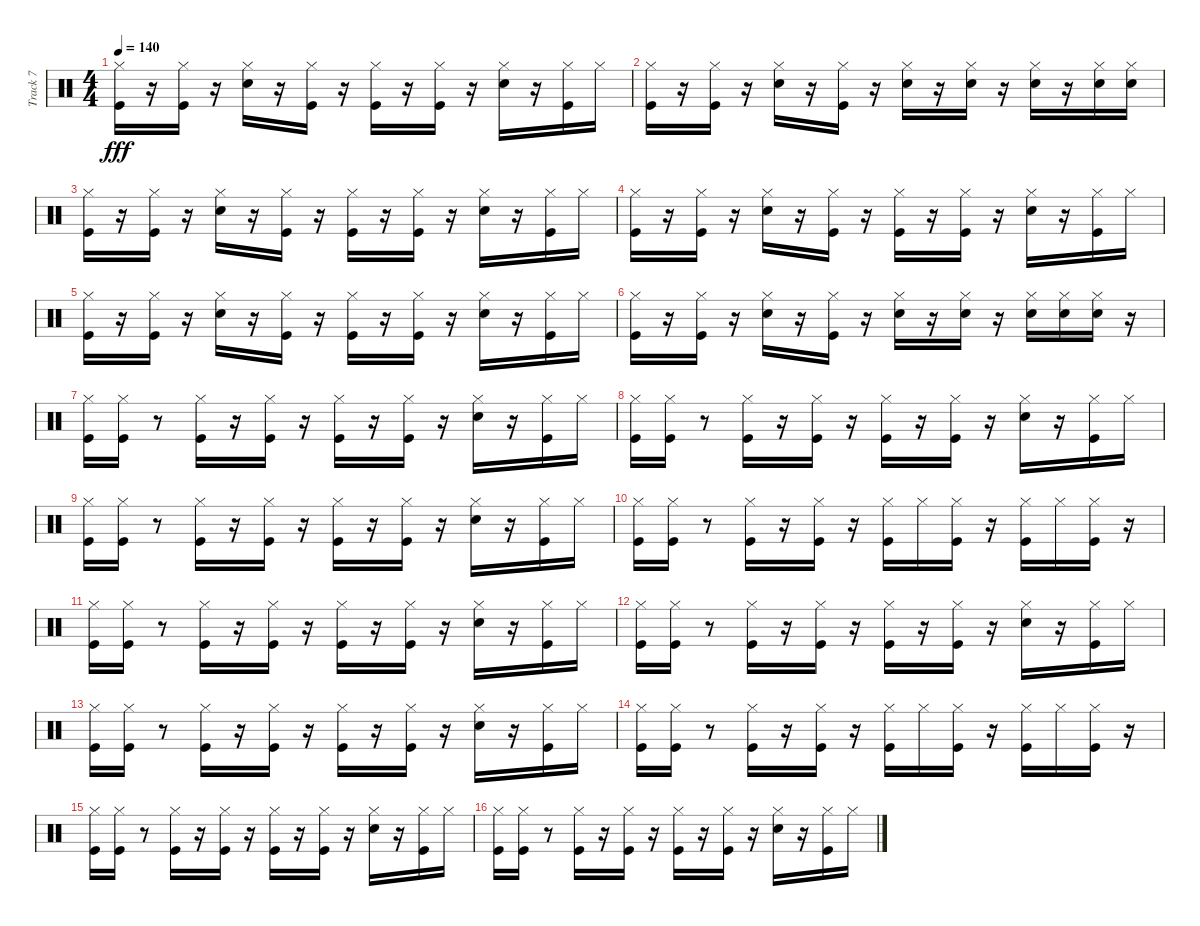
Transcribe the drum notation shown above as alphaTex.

\track ("Track 7" "Track 7") {instrument percussion}
\staff {score}
\articulation defaults
\ts (4 4)
\tempo 140
\clef neutral
\ks c
("Kick (hit)" "Hi-Hat (closed)").16{dy fff} r.16 ("Kick (hit)" "Hi-Hat (closed)").16 r.16 ("Snare (hit) 2" "Hi-Hat (closed)").16 r.16 ("Kick (hit)" "Hi-Hat (closed)").16 r.16 ("Kick (hit)" "Hi-Hat (closed)").16 r.16 ("Kick (hit)" "Hi-Hat (closed)").16 r.16 ("Snare (hit) 2" "Hi-Hat (closed)").16 r.16 ("Kick (hit)" "Hi-Hat (closed)").16 "Hi-Hat (closed)".16 |
("Kick (hit)" "Hi-Hat (closed)").16 r.16 ("Kick (hit)" "Hi-Hat (closed)").16 r.16 ("Snare (hit) 2" "Hi-Hat (closed)").16 r.16 ("Kick (hit)" "Hi-Hat (closed)").16 r.16 ("Snare (hit) 2" "Hi-Hat (closed)").16 r.16 ("Snare (hit) 2" "Hi-Hat (closed)").16 r.16 ("Snare (hit) 2" "Hi-Hat (closed)").16 r.16 ("Snare (hit) 2" "Hi-Hat (closed)").16 ("Snare (hit) 2" "Hi-Hat (closed)").16 |
("Kick (hit)" "Hi-Hat (closed)").16 r.16 ("Kick (hit)" "Hi-Hat (closed)").16 r.16 ("Snare (hit) 2" "Hi-Hat (closed)").16 r.16 ("Kick (hit)" "Hi-Hat (closed)").16 r.16 ("Kick (hit)" "Hi-Hat (closed)").16 r.16 ("Kick (hit)" "Hi-Hat (closed)").16 r.16 ("Snare (hit) 2" "Hi-Hat (closed)").16 r.16 ("Kick (hit)" "Hi-Hat (closed)").16 "Hi-Hat (closed)".16 |
("Kick (hit)" "Hi-Hat (closed)").16 r.16 ("Kick (hit)" "Hi-Hat (closed)").16 r.16 ("Snare (hit) 2" "Hi-Hat (closed)").16 r.16 ("Kick (hit)" "Hi-Hat (closed)").16 r.16 ("Kick (hit)" "Hi-Hat (closed)").16 r.16 ("Kick (hit)" "Hi-Hat (closed)").16 r.16 ("Snare (hit) 2" "Hi-Hat (closed)").16 r.16 ("Kick (hit)" "Hi-Hat (closed)").16 "Hi-Hat (closed)".16 |
("Kick (hit)" "Hi-Hat (closed)").16 r.16 ("Kick (hit)" "Hi-Hat (closed)").16 r.16 ("Snare (hit) 2" "Hi-Hat (closed)").16 r.16 ("Kick (hit)" "Hi-Hat (closed)").16 r.16 ("Kick (hit)" "Hi-Hat (closed)").16 r.16 ("Kick (hit)" "Hi-Hat (closed)").16 r.16 ("Snare (hit) 2" "Hi-Hat (closed)").16 r.16 ("Kick (hit)" "Hi-Hat (closed)").16 "Hi-Hat (closed)".16 |
("Kick (hit)" "Hi-Hat (closed)").16 r.16 ("Kick (hit)" "Hi-Hat (closed)").16 r.16 ("Snare (hit) 2" "Hi-Hat (closed)").16 r.16 ("Kick (hit)" "Hi-Hat (closed)").16 r.16 ("Snare (hit) 2" "Hi-Hat (closed)").16 r.16 ("Snare (hit) 2" "Hi-Hat (closed)").16 r.16 ("Snare (hit) 2" "Hi-Hat (closed)").16 ("Snare (hit) 2" "Hi-Hat (closed)").16 ("Snare (hit) 2" "Hi-Hat (closed)").16 r.16 |
("Kick (hit)" "Hi-Hat (closed)").16 ("Kick (hit)" "Hi-Hat (closed)").16 r.8 ("Kick (hit)" "Hi-Hat (closed)").16 r.16 ("Kick (hit)" "Hi-Hat (closed)").16 r.16 ("Kick (hit)" "Hi-Hat (closed)").16 r.16 ("Kick (hit)" "Hi-Hat (closed)").16 r.16 ("Snare (hit) 2" "Hi-Hat (closed)").16 r.16 ("Kick (hit)" "Hi-Hat (closed)").16 "Hi-Hat (closed)".16 |
("Kick (hit)" "Hi-Hat (closed)").16 ("Kick (hit)" "Hi-Hat (closed)").16 r.8 ("Kick (hit)" "Hi-Hat (closed)").16 r.16 ("Kick (hit)" "Hi-Hat (closed)").16 r.16 ("Kick (hit)" "Hi-Hat (closed)").16 r.16 ("Kick (hit)" "Hi-Hat (closed)").16 r.16 ("Snare (hit) 2" "Hi-Hat (closed)").16 r.16 ("Kick (hit)" "Hi-Hat (closed)").16 "Hi-Hat (closed)".16 |
("Kick (hit)" "Hi-Hat (closed)").16 ("Kick (hit)" "Hi-Hat (closed)").16 r.8 ("Kick (hit)" "Hi-Hat (closed)").16 r.16 ("Kick (hit)" "Hi-Hat (closed)").16 r.16 ("Kick (hit)" "Hi-Hat (closed)").16 r.16 ("Kick (hit)" "Hi-Hat (closed)").16 r.16 ("Snare (hit) 2" "Hi-Hat (closed)").16 r.16 ("Kick (hit)" "Hi-Hat (closed)").16 "Hi-Hat (closed)".16 |
("Kick (hit)" "Hi-Hat (closed)").16 ("Kick (hit)" "Hi-Hat (closed)").16 r.8 ("Kick (hit)" "Hi-Hat (closed)").16 r.16 ("Kick (hit)" "Hi-Hat (closed)").16 r.16 ("Kick (hit)" "Hi-Hat (closed)").16 "Hi-Hat (closed)".16 ("Kick (hit)" "Hi-Hat (closed)").16 r.16 ("Kick (hit)" "Hi-Hat (closed)").16 "Hi-Hat (closed)".16 ("Kick (hit)" "Hi-Hat (closed)").16 r.16 |
("Kick (hit)" "Hi-Hat (closed)").16 ("Kick (hit)" "Hi-Hat (closed)").16 r.8 ("Kick (hit)" "Hi-Hat (closed)").16 r.16 ("Kick (hit)" "Hi-Hat (closed)").16 r.16 ("Kick (hit)" "Hi-Hat (closed)").16 r.16 ("Kick (hit)" "Hi-Hat (closed)").16 r.16 ("Snare (hit) 2" "Hi-Hat (closed)").16 r.16 ("Kick (hit)" "Hi-Hat (closed)").16 "Hi-Hat (closed)".16 |
("Kick (hit)" "Hi-Hat (closed)").16 ("Kick (hit)" "Hi-Hat (closed)").16 r.8 ("Kick (hit)" "Hi-Hat (closed)").16 r.16 ("Kick (hit)" "Hi-Hat (closed)").16 r.16 ("Kick (hit)" "Hi-Hat (closed)").16 r.16 ("Kick (hit)" "Hi-Hat (closed)").16 r.16 ("Snare (hit) 2" "Hi-Hat (closed)").16 r.16 ("Kick (hit)" "Hi-Hat (closed)").16 "Hi-Hat (closed)".16 |
("Kick (hit)" "Hi-Hat (closed)").16 ("Kick (hit)" "Hi-Hat (closed)").16 r.8 ("Kick (hit)" "Hi-Hat (closed)").16 r.16 ("Kick (hit)" "Hi-Hat (closed)").16 r.16 ("Kick (hit)" "Hi-Hat (closed)").16 r.16 ("Kick (hit)" "Hi-Hat (closed)").16 r.16 ("Snare (hit) 2" "Hi-Hat (closed)").16 r.16 ("Kick (hit)" "Hi-Hat (closed)").16 "Hi-Hat (closed)".16 |
("Kick (hit)" "Hi-Hat (closed)").16 ("Kick (hit)" "Hi-Hat (closed)").16 r.8 ("Kick (hit)" "Hi-Hat (closed)").16 r.16 ("Kick (hit)" "Hi-Hat (closed)").16 r.16 ("Kick (hit)" "Hi-Hat (closed)").16 "Hi-Hat (closed)".16 ("Kick (hit)" "Hi-Hat (closed)").16 r.16 ("Kick (hit)" "Hi-Hat (closed)").16 "Hi-Hat (closed)".16 ("Kick (hit)" "Hi-Hat (closed)").16 r.16 |
("Kick (hit)" "Hi-Hat (closed)").16 ("Kick (hit)" "Hi-Hat (closed)").16 r.8 ("Kick (hit)" "Hi-Hat (closed)").16 r.16 ("Kick (hit)" "Hi-Hat (closed)").16 r.16 ("Kick (hit)" "Hi-Hat (closed)").16 r.16 ("Kick (hit)" "Hi-Hat (closed)").16 r.16 ("Snare (hit) 2" "Hi-Hat (closed)").16 r.16 ("Kick (hit)" "Hi-Hat (closed)").16 "Hi-Hat (closed)".16 |
("Kick (hit)" "Hi-Hat (closed)").16 ("Kick (hit)" "Hi-Hat (closed)").16 r.8 ("Kick (hit)" "Hi-Hat (closed)").16 r.16 ("Kick (hit)" "Hi-Hat (closed)").16 r.16 ("Kick (hit)" "Hi-Hat (closed)").16 r.16 ("Kick (hit)" "Hi-Hat (closed)").16 r.16 ("Snare (hit) 2" "Hi-Hat (closed)").16 r.16 ("Kick (hit)" "Hi-Hat (closed)").16 "Hi-Hat (closed)".16
